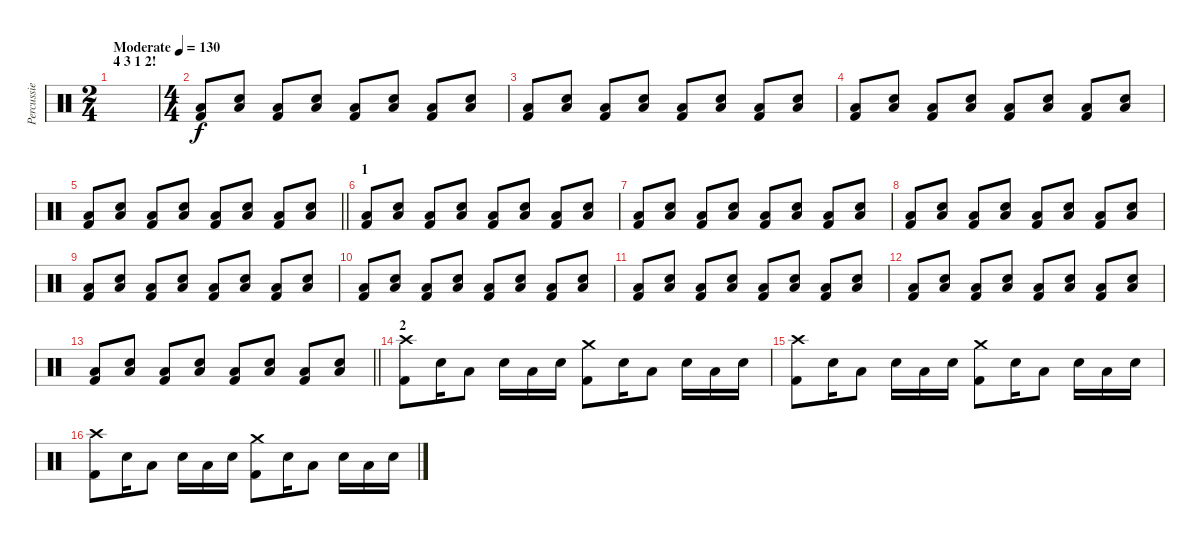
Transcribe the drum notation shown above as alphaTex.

\track ("Percussie" "Percussie") {instrument percussion}
\staff {score}
\articulation defaults
\ts (2 4)
\section ("" "4 3 1 2!")
\tempo (130 "Moderate")
\clef neutral
\ks c
|
\ts (4 4)
("Low Floor Tom (hit)" "Kick (hit) 2").8 ("Low Floor Tom (hit)" "Snare (hit) 2").8 ("Low Floor Tom (hit)" "Kick (hit) 2").8 ("Low Floor Tom (hit)" "Snare (hit) 2").8 ("Low Floor Tom (hit)" "Kick (hit) 2").8 ("Low Floor Tom (hit)" "Snare (hit) 2").8 ("Low Floor Tom (hit)" "Kick (hit) 2").8 ("Low Floor Tom (hit)" "Snare (hit) 2").8 |
("Low Floor Tom (hit)" "Kick (hit) 2").8 ("Low Floor Tom (hit)" "Snare (hit) 2").8 ("Low Floor Tom (hit)" "Kick (hit) 2").8 ("Low Floor Tom (hit)" "Snare (hit) 2").8 ("Low Floor Tom (hit)" "Kick (hit) 2").8 ("Low Floor Tom (hit)" "Snare (hit) 2").8 ("Low Floor Tom (hit)" "Kick (hit) 2").8 ("Low Floor Tom (hit)" "Snare (hit) 2").8 |
("Low Floor Tom (hit)" "Kick (hit) 2").8 ("Low Floor Tom (hit)" "Snare (hit) 2").8 ("Low Floor Tom (hit)" "Kick (hit) 2").8 ("Low Floor Tom (hit)" "Snare (hit) 2").8 ("Low Floor Tom (hit)" "Kick (hit) 2").8 ("Low Floor Tom (hit)" "Snare (hit) 2").8 ("Low Floor Tom (hit)" "Kick (hit) 2").8 ("Low Floor Tom (hit)" "Snare (hit) 2").8 |
\barLineRight lightlight
("Low Floor Tom (hit)" "Kick (hit) 2").8 ("Low Floor Tom (hit)" "Snare (hit) 2").8 ("Low Floor Tom (hit)" "Kick (hit) 2").8 ("Low Floor Tom (hit)" "Snare (hit) 2").8 ("Low Floor Tom (hit)" "Kick (hit) 2").8 ("Low Floor Tom (hit)" "Snare (hit) 2").8 ("Low Floor Tom (hit)" "Kick (hit) 2").8 ("Low Floor Tom (hit)" "Snare (hit) 2").8 |
\section ("" "1")
("Low Floor Tom (hit)" "Kick (hit) 2").8 ("Low Floor Tom (hit)" "Snare (hit) 2").8 ("Low Floor Tom (hit)" "Kick (hit) 2").8 ("Low Floor Tom (hit)" "Snare (hit) 2").8 ("Low Floor Tom (hit)" "Kick (hit) 2").8 ("Low Floor Tom (hit)" "Snare (hit) 2").8 ("Low Floor Tom (hit)" "Kick (hit) 2").8 ("Low Floor Tom (hit)" "Snare (hit) 2").8 |
("Low Floor Tom (hit)" "Kick (hit) 2").8 ("Low Floor Tom (hit)" "Snare (hit) 2").8 ("Low Floor Tom (hit)" "Kick (hit) 2").8 ("Low Floor Tom (hit)" "Snare (hit) 2").8 ("Low Floor Tom (hit)" "Kick (hit) 2").8 ("Low Floor Tom (hit)" "Snare (hit) 2").8 ("Low Floor Tom (hit)" "Kick (hit) 2").8 ("Low Floor Tom (hit)" "Snare (hit) 2").8 |
("Low Floor Tom (hit)" "Kick (hit) 2").8 ("Low Floor Tom (hit)" "Snare (hit) 2").8 ("Low Floor Tom (hit)" "Kick (hit) 2").8 ("Low Floor Tom (hit)" "Snare (hit) 2").8 ("Low Floor Tom (hit)" "Kick (hit) 2").8 ("Low Floor Tom (hit)" "Snare (hit) 2").8 ("Low Floor Tom (hit)" "Kick (hit) 2").8 ("Low Floor Tom (hit)" "Snare (hit) 2").8 |
("Low Floor Tom (hit)" "Kick (hit) 2").8 ("Low Floor Tom (hit)" "Snare (hit) 2").8 ("Low Floor Tom (hit)" "Kick (hit) 2").8 ("Low Floor Tom (hit)" "Snare (hit) 2").8 ("Low Floor Tom (hit)" "Kick (hit) 2").8 ("Low Floor Tom (hit)" "Snare (hit) 2").8 ("Low Floor Tom (hit)" "Kick (hit) 2").8 ("Low Floor Tom (hit)" "Snare (hit) 2").8 |
("Low Floor Tom (hit)" "Kick (hit) 2").8 ("Low Floor Tom (hit)" "Snare (hit) 2").8 ("Low Floor Tom (hit)" "Kick (hit) 2").8 ("Low Floor Tom (hit)" "Snare (hit) 2").8 ("Low Floor Tom (hit)" "Kick (hit) 2").8 ("Low Floor Tom (hit)" "Snare (hit) 2").8 ("Low Floor Tom (hit)" "Kick (hit) 2").8 ("Low Floor Tom (hit)" "Snare (hit) 2").8 |
("Low Floor Tom (hit)" "Kick (hit) 2").8 ("Low Floor Tom (hit)" "Snare (hit) 2").8 ("Low Floor Tom (hit)" "Kick (hit) 2").8 ("Low Floor Tom (hit)" "Snare (hit) 2").8 ("Low Floor Tom (hit)" "Kick (hit) 2").8 ("Low Floor Tom (hit)" "Snare (hit) 2").8 ("Low Floor Tom (hit)" "Kick (hit) 2").8 ("Low Floor Tom (hit)" "Snare (hit) 2").8 |
("Low Floor Tom (hit)" "Kick (hit) 2").8 ("Low Floor Tom (hit)" "Snare (hit) 2").8 ("Low Floor Tom (hit)" "Kick (hit) 2").8 ("Low Floor Tom (hit)" "Snare (hit) 2").8 ("Low Floor Tom (hit)" "Kick (hit) 2").8 ("Low Floor Tom (hit)" "Snare (hit) 2").8 ("Low Floor Tom (hit)" "Kick (hit) 2").8 ("Low Floor Tom (hit)" "Snare (hit) 2").8 |
\barLineRight lightlight
("Low Floor Tom (hit)" "Kick (hit) 2").8 ("Low Floor Tom (hit)" "Snare (hit) 2").8 ("Low Floor Tom (hit)" "Kick (hit) 2").8 ("Low Floor Tom (hit)" "Snare (hit) 2").8 ("Low Floor Tom (hit)" "Kick (hit) 2").8 ("Low Floor Tom (hit)" "Snare (hit) 2").8 ("Low Floor Tom (hit)" "Kick (hit) 2").8 ("Low Floor Tom (hit)" "Snare (hit) 2").8 |
\section ("" "2")
("Crash high (hit)" "Kick (hit) 2").8 "Snare (hit) 2".16 "Low Floor Tom (hit)".8 "Snare (hit) 2".16 "Low Floor Tom (hit)".16 "Snare (hit) 2".16 ("Crash medium (hit)" "Kick (hit) 2").8 "Snare (hit) 2".16 "Low Floor Tom (hit)".8 "Snare (hit) 2".16 "Low Floor Tom (hit)".16 "Snare (hit) 2".16 |
("Crash high (hit)" "Kick (hit) 2").8 "Snare (hit) 2".16 "Low Floor Tom (hit)".8 "Snare (hit) 2".16 "Low Floor Tom (hit)".16 "Snare (hit) 2".16 ("Crash medium (hit)" "Kick (hit) 2").8 "Snare (hit) 2".16 "Low Floor Tom (hit)".8 "Snare (hit) 2".16 "Low Floor Tom (hit)".16 "Snare (hit) 2".16 |
("Crash high (hit)" "Kick (hit) 2").8 "Snare (hit) 2".16 "Low Floor Tom (hit)".8 "Snare (hit) 2".16 "Low Floor Tom (hit)".16 "Snare (hit) 2".16 ("Crash medium (hit)" "Kick (hit) 2").8 "Snare (hit) 2".16 "Low Floor Tom (hit)".8 "Snare (hit) 2".16 "Low Floor Tom (hit)".16 "Snare (hit) 2".16
